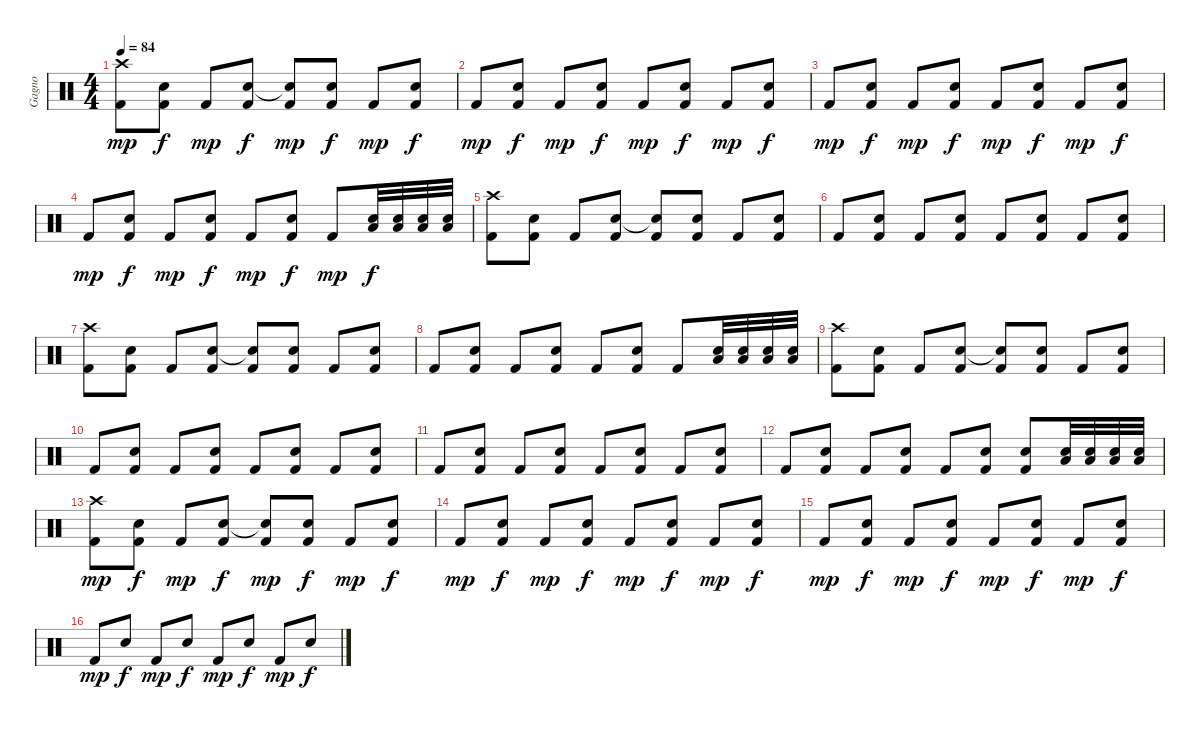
\track ("Gagno" "Gagno") {instrument percussion}
\staff {score}
\articulation defaults
\ts (4 4)
\tempo 84
\clef neutral
\ks c
("Crash high (hit)" "Kick (hit) 2").8{dy mp} ("Electric Snare (hit)" "Kick (hit) 2").8{dy f} "Kick (hit) 2".8{dy mp} ("Electric Snare (hit)" "Kick (hit) 2").8{dy f} ("Snare (hit)"{t} "Kick (hit) 2").8{dy mp} ("Electric Snare (hit)" "Kick (hit) 2").8{dy f} "Kick (hit) 2".8{dy mp} ("Electric Snare (hit)" "Kick (hit) 2").8{dy f} |
"Kick (hit) 2".8{dy mp} ("Electric Snare (hit)" "Kick (hit) 2").8{dy f} "Kick (hit) 2".8{dy mp} ("Electric Snare (hit)" "Kick (hit) 2").8{dy f} "Kick (hit) 2".8{dy mp} ("Electric Snare (hit)" "Kick (hit) 2").8{dy f} "Kick (hit) 2".8{dy mp} ("Electric Snare (hit)" "Kick (hit) 2").8{dy f} |
"Kick (hit) 2".8{dy mp} ("Electric Snare (hit)" "Kick (hit) 2").8{dy f} "Kick (hit) 2".8{dy mp} ("Electric Snare (hit)" "Kick (hit) 2").8{dy f} "Kick (hit) 2".8{dy mp} ("Electric Snare (hit)" "Kick (hit) 2").8{dy f} "Kick (hit) 2".8{dy mp} ("Electric Snare (hit)" "Kick (hit) 2").8{dy f} |
"Kick (hit) 2".8{dy mp} ("Electric Snare (hit)" "Kick (hit) 2").8{dy f} "Kick (hit) 2".8{dy mp} ("Electric Snare (hit)" "Kick (hit) 2").8{dy f} "Kick (hit) 2".8{dy mp} ("Electric Snare (hit)" "Kick (hit) 2").8{dy f} "Kick (hit) 2".8{dy mp} ("Snare (hit) 2" "Low Floor Tom (hit)").32{dy f} ("Snare (hit) 2" "Low Floor Tom (hit)").32 ("Snare (hit) 2" "Low Floor Tom (hit)").32 ("Snare (hit) 2" "Low Floor Tom (hit)").32 |
("Crash high (hit)" "Kick (hit) 2").8 ("Electric Snare (hit)" "Kick (hit) 2").8 "Kick (hit) 2".8 ("Electric Snare (hit)" "Kick (hit) 2").8 ("Snare (hit)"{t} "Kick (hit) 2").8 ("Electric Snare (hit)" "Kick (hit) 2").8 "Kick (hit) 2".8 ("Electric Snare (hit)" "Kick (hit) 2").8 |
"Kick (hit) 2".8 ("Electric Snare (hit)" "Kick (hit) 2").8 "Kick (hit) 2".8 ("Electric Snare (hit)" "Kick (hit) 2").8 "Kick (hit) 2".8 ("Electric Snare (hit)" "Kick (hit) 2").8 "Kick (hit) 2".8 ("Electric Snare (hit)" "Kick (hit) 2").8 |
("Crash high (hit)" "Kick (hit) 2").8 ("Electric Snare (hit)" "Kick (hit) 2").8 "Kick (hit) 2".8 ("Electric Snare (hit)" "Kick (hit) 2").8 ("Snare (hit)"{t} "Kick (hit) 2").8 ("Electric Snare (hit)" "Kick (hit) 2").8 "Kick (hit) 2".8 ("Electric Snare (hit)" "Kick (hit) 2").8 |
"Kick (hit) 2".8 ("Electric Snare (hit)" "Kick (hit) 2").8 "Kick (hit) 2".8 ("Electric Snare (hit)" "Kick (hit) 2").8 "Kick (hit) 2".8 ("Electric Snare (hit)" "Kick (hit) 2").8 "Kick (hit) 2".8 ("Snare (hit) 2" "Low Floor Tom (hit)").32 ("Snare (hit) 2" "Low Floor Tom (hit)").32 ("Snare (hit) 2" "Low Floor Tom (hit)").32 ("Snare (hit) 2" "Low Floor Tom (hit)").32 |
("Crash high (hit)" "Kick (hit) 2").8 ("Electric Snare (hit)" "Kick (hit) 2").8 "Kick (hit) 2".8 ("Electric Snare (hit)" "Kick (hit) 2").8 ("Snare (hit)"{t} "Kick (hit) 2").8 ("Electric Snare (hit)" "Kick (hit) 2").8 "Kick (hit) 2".8 ("Electric Snare (hit)" "Kick (hit) 2").8 |
"Kick (hit) 2".8 ("Electric Snare (hit)" "Kick (hit) 2").8 "Kick (hit) 2".8 ("Electric Snare (hit)" "Kick (hit) 2").8 "Kick (hit) 2".8 ("Electric Snare (hit)" "Kick (hit) 2").8 "Kick (hit) 2".8 ("Electric Snare (hit)" "Kick (hit) 2").8 |
"Kick (hit) 2".8 ("Electric Snare (hit)" "Kick (hit) 2").8 "Kick (hit) 2".8 ("Electric Snare (hit)" "Kick (hit) 2").8 "Kick (hit) 2".8 ("Electric Snare (hit)" "Kick (hit) 2").8 "Kick (hit) 2".8 ("Electric Snare (hit)" "Kick (hit) 2").8 |
"Kick (hit) 2".8 ("Electric Snare (hit)" "Kick (hit) 2").8 "Kick (hit) 2".8 ("Electric Snare (hit)" "Kick (hit) 2").8 "Kick (hit) 2".8 ("Electric Snare (hit)" "Kick (hit) 2").8 ("Electric Snare (hit)" "Kick (hit) 2").8 ("Snare (hit) 2" "Low Floor Tom (hit)").32 ("Snare (hit) 2" "Low Floor Tom (hit)").32 ("Snare (hit) 2" "Low Floor Tom (hit)").32 ("Snare (hit) 2" "Low Floor Tom (hit)").32 |
("Crash high (hit)" "Kick (hit) 2").8{dy mp} ("Electric Snare (hit)" "Kick (hit) 2").8{dy f} "Kick (hit) 2".8{dy mp} ("Electric Snare (hit)" "Kick (hit) 2").8{dy f} ("Snare (hit)"{t} "Kick (hit) 2").8{dy mp} ("Electric Snare (hit)" "Kick (hit) 2").8{dy f} "Kick (hit) 2".8{dy mp} ("Electric Snare (hit)" "Kick (hit) 2").8{dy f} |
"Kick (hit) 2".8{dy mp} ("Electric Snare (hit)" "Kick (hit) 2").8{dy f} "Kick (hit) 2".8{dy mp} ("Electric Snare (hit)" "Kick (hit) 2").8{dy f} "Kick (hit) 2".8{dy mp} ("Electric Snare (hit)" "Kick (hit) 2").8{dy f} "Kick (hit) 2".8{dy mp} ("Electric Snare (hit)" "Kick (hit) 2").8{dy f} |
"Kick (hit) 2".8{dy mp} ("Electric Snare (hit)" "Kick (hit) 2").8{dy f} "Kick (hit) 2".8{dy mp} ("Electric Snare (hit)" "Kick (hit) 2").8{dy f} "Kick (hit) 2".8{dy mp} ("Electric Snare (hit)" "Kick (hit) 2").8{dy f} "Kick (hit) 2".8{dy mp} ("Electric Snare (hit)" "Kick (hit) 2").8{dy f} |
"Kick (hit) 2".8{dy mp} "Electric Snare (hit)".8{dy f} "Kick (hit) 2".8{dy mp} "Electric Snare (hit)".8{dy f} "Kick (hit) 2".8{dy mp} "Electric Snare (hit)".8{dy f} "Kick (hit) 2".8{dy mp} "Electric Snare (hit)".8{dy f}
